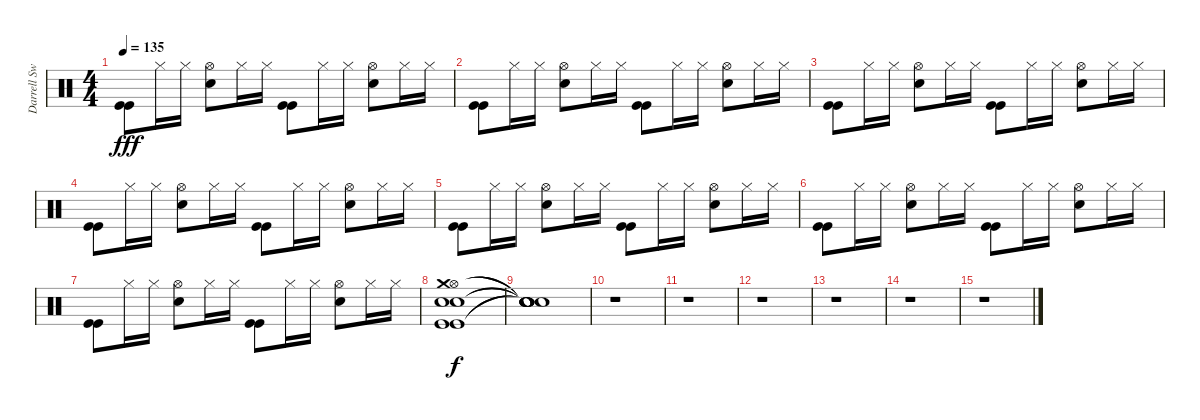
\track ("Darrell Sweet (drums)" "Darrell Sw") {instrument percussion}
\staff {score}
\articulation defaults
\ts (4 4)
\tempo 135
\clef neutral
\ks c
("Kick (hit)" "Kick (hit)").8{dy fff} "Hi-Hat (closed)".16 "Hi-Hat (closed)".16 ("Snare (hit) 2" "Hi-Hat (open)").8 "Hi-Hat (closed)".16 "Hi-Hat (closed)".16 ("Kick (hit)" "Kick (hit)").8 "Hi-Hat (closed)".16 "Hi-Hat (closed)".16 ("Snare (hit) 2" "Hi-Hat (open)").8 "Hi-Hat (closed)".16 "Hi-Hat (closed)".16 |
("Kick (hit)" "Kick (hit)").8 "Hi-Hat (closed)".16 "Hi-Hat (closed)".16 ("Snare (hit) 2" "Hi-Hat (open)").8 "Hi-Hat (closed)".16 "Hi-Hat (closed)".16 ("Kick (hit)" "Kick (hit)").8 "Hi-Hat (closed)".16 "Hi-Hat (closed)".16 ("Snare (hit) 2" "Hi-Hat (open)").8 "Hi-Hat (closed)".16 "Hi-Hat (closed)".16 |
("Kick (hit)" "Kick (hit)").8 "Hi-Hat (closed)".16 "Hi-Hat (closed)".16 ("Snare (hit) 2" "Hi-Hat (open)").8 "Hi-Hat (closed)".16 "Hi-Hat (closed)".16 ("Kick (hit)" "Kick (hit)").8 "Hi-Hat (closed)".16 "Hi-Hat (closed)".16 ("Snare (hit) 2" "Hi-Hat (open)").8 "Hi-Hat (closed)".16 "Hi-Hat (closed)".16 |
("Kick (hit)" "Kick (hit)").8 "Hi-Hat (closed)".16 "Hi-Hat (closed)".16 ("Snare (hit) 2" "Hi-Hat (open)").8 "Hi-Hat (closed)".16 "Hi-Hat (closed)".16 ("Kick (hit)" "Kick (hit)").8 "Hi-Hat (closed)".16 "Hi-Hat (closed)".16 ("Snare (hit) 2" "Hi-Hat (open)").8 "Hi-Hat (closed)".16 "Hi-Hat (closed)".16 |
("Kick (hit)" "Kick (hit)").8 "Hi-Hat (closed)".16 "Hi-Hat (closed)".16 ("Snare (hit) 2" "Hi-Hat (open)").8 "Hi-Hat (closed)".16 "Hi-Hat (closed)".16 ("Kick (hit)" "Kick (hit)").8 "Hi-Hat (closed)".16 "Hi-Hat (closed)".16 ("Snare (hit) 2" "Hi-Hat (open)").8 "Hi-Hat (closed)".16 "Hi-Hat (closed)".16 |
("Kick (hit)" "Kick (hit)").8 "Hi-Hat (closed)".16 "Hi-Hat (closed)".16 ("Snare (hit) 2" "Hi-Hat (open)").8 "Hi-Hat (closed)".16 "Hi-Hat (closed)".16 ("Kick (hit)" "Kick (hit)").8 "Hi-Hat (closed)".16 "Hi-Hat (closed)".16 ("Snare (hit) 2" "Hi-Hat (open)").8 "Hi-Hat (closed)".16 "Hi-Hat (closed)".16 |
("Kick (hit)" "Kick (hit)").8 "Hi-Hat (closed)".16 "Hi-Hat (closed)".16 ("Snare (hit) 2" "Hi-Hat (open)").8 "Hi-Hat (closed)".16 "Hi-Hat (closed)".16 ("Kick (hit)" "Kick (hit)").8 "Hi-Hat (closed)".16 "Hi-Hat (closed)".16 ("Snare (hit) 2" "Hi-Hat (open)").8 "Hi-Hat (closed)".16 "Hi-Hat (closed)".16 |
("Snare (hit) 2" "Electric Snare (hit)" "Hi-Hat (open)" "Kick (hit)" "Kick (hit)" "Crash medium (hit)").1{dy f} |
("Snare (hit)"{t} "Snare (hit)"{t} "Snare (hit)"{t} "Snare (hit)"{t} "Snare (hit)"{t} "Snare (hit)"{t}).1 |
r.1 |
r.1 |
r.1 |
r.1 |
r.1 |
r.1
